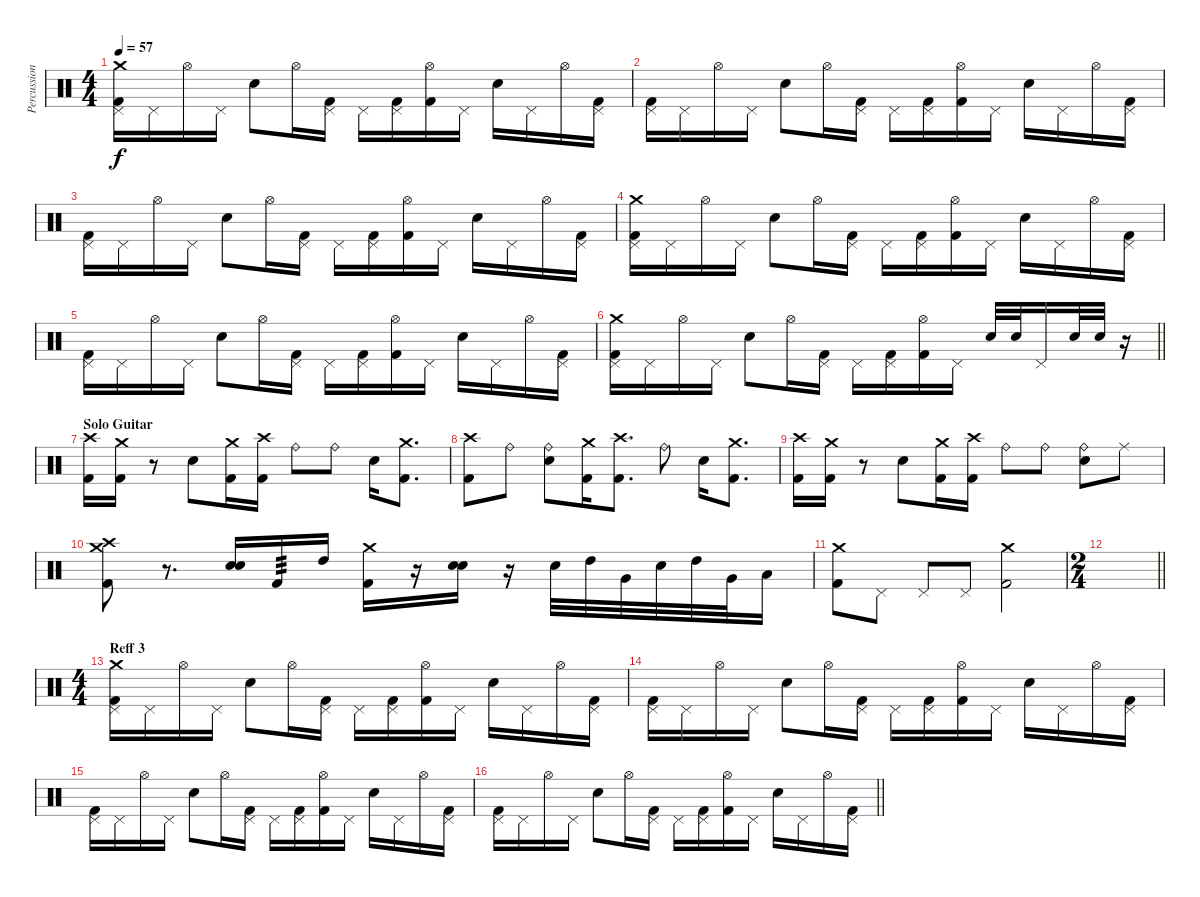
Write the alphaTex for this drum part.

\track ("Percussion" "Percussion") {instrument percussion}
\staff {score}
\articulation defaults
\ts (4 4)
\tempo 57
\clef neutral
\ks c
("Pedal Hi-Hat (hit)" "Crash medium (hit)" "Kick (hit) 2").16{dy f} "Pedal Hi-Hat (hit)".16 "Hi-Hat (open)".16 "Pedal Hi-Hat (hit)".16 "Electric Snare (hit)".8 "Hi-Hat (open)".16 ("Pedal Hi-Hat (hit)" "Kick (hit) 2").16 "Pedal Hi-Hat (hit)".16 ("Pedal Hi-Hat (hit)" "Kick (hit) 2").16 ("Hi-Hat (open)" "Kick (hit) 2").16 "Pedal Hi-Hat (hit)".16 "Electric Snare (hit)".16 "Pedal Hi-Hat (hit)".16 "Hi-Hat (open)".16 ("Pedal Hi-Hat (hit)" "Kick (hit) 2").16 |
("Pedal Hi-Hat (hit)" "Kick (hit) 2").16 "Pedal Hi-Hat (hit)".16 "Hi-Hat (open)".16 "Pedal Hi-Hat (hit)".16 "Electric Snare (hit)".8 "Hi-Hat (open)".16 ("Pedal Hi-Hat (hit)" "Kick (hit) 2").16 "Pedal Hi-Hat (hit)".16 ("Pedal Hi-Hat (hit)" "Kick (hit) 2").16 ("Hi-Hat (open)" "Kick (hit) 2").16 "Pedal Hi-Hat (hit)".16 "Electric Snare (hit)".16 "Pedal Hi-Hat (hit)".16 "Hi-Hat (open)".16 ("Pedal Hi-Hat (hit)" "Kick (hit) 2").16 |
("Pedal Hi-Hat (hit)" "Kick (hit) 2").16 "Pedal Hi-Hat (hit)".16 "Hi-Hat (open)".16 "Pedal Hi-Hat (hit)".16 "Electric Snare (hit)".8 "Hi-Hat (open)".16 ("Pedal Hi-Hat (hit)" "Kick (hit) 2").16 "Pedal Hi-Hat (hit)".16 ("Pedal Hi-Hat (hit)" "Kick (hit) 2").16 ("Hi-Hat (open)" "Kick (hit) 2").16 "Pedal Hi-Hat (hit)".16 "Electric Snare (hit)".16 "Pedal Hi-Hat (hit)".16 "Hi-Hat (open)".16 ("Pedal Hi-Hat (hit)" "Kick (hit) 2").16 |
("Pedal Hi-Hat (hit)" "Crash medium (hit)" "Kick (hit) 2").16 "Pedal Hi-Hat (hit)".16 "Hi-Hat (open)".16 "Pedal Hi-Hat (hit)".16 "Electric Snare (hit)".8 "Hi-Hat (open)".16 ("Pedal Hi-Hat (hit)" "Kick (hit) 2").16 "Pedal Hi-Hat (hit)".16 ("Pedal Hi-Hat (hit)" "Kick (hit) 2").16 ("Hi-Hat (open)" "Kick (hit) 2").16 "Pedal Hi-Hat (hit)".16 "Electric Snare (hit)".16 "Pedal Hi-Hat (hit)".16 "Hi-Hat (open)".16 ("Pedal Hi-Hat (hit)" "Kick (hit) 2").16 |
("Pedal Hi-Hat (hit)" "Kick (hit) 2").16 "Pedal Hi-Hat (hit)".16 "Hi-Hat (open)".16 "Pedal Hi-Hat (hit)".16 "Electric Snare (hit)".8 "Hi-Hat (open)".16 ("Pedal Hi-Hat (hit)" "Kick (hit) 2").16 "Pedal Hi-Hat (hit)".16 ("Pedal Hi-Hat (hit)" "Kick (hit) 2").16 ("Hi-Hat (open)" "Kick (hit) 2").16 "Pedal Hi-Hat (hit)".16 "Electric Snare (hit)".16 "Pedal Hi-Hat (hit)".16 "Hi-Hat (open)".16 ("Pedal Hi-Hat (hit)" "Kick (hit) 2").16 |
\barLineRight lightlight
("Pedal Hi-Hat (hit)" "Crash medium (hit)" "Kick (hit) 2").16 "Pedal Hi-Hat (hit)".16 "Hi-Hat (open)".16 "Pedal Hi-Hat (hit)".16 "Electric Snare (hit)".8 "Hi-Hat (open)".16 ("Pedal Hi-Hat (hit)" "Kick (hit) 2").16 "Pedal Hi-Hat (hit)".16 ("Pedal Hi-Hat (hit)" "Kick (hit) 2").16 ("Hi-Hat (open)" "Kick (hit) 2").16 "Pedal Hi-Hat (hit)".16 "Electric Snare (hit)".32 "Electric Snare (hit)".32 "Pedal Hi-Hat (hit)".16 "Electric Snare (hit)".32 "Electric Snare (hit)".32 r.16 |
\section ("" "Solo Guitar")
("Crash high (hit)" "Kick (hit) 2").16 ("Crash medium (hit)" "Kick (hit) 2").16 r.8 "Electric Snare (hit)".8 ("Crash medium (hit)" "Kick (hit) 2").16 ("Crash high (hit)" "Kick (hit) 2").16 "Ride (bell)".8 "Ride (bell)".8 "Electric Snare (hit)".16 ("Crash medium (hit)" "Kick (hit) 2").8{d} |
("Crash high (hit)" "Kick (hit) 2").8 "Ride (bell)".8 ("Ride (bell)" "Electric Snare (hit)").8 ("Crash medium (hit)" "Kick (hit) 2").16 ("Crash high (hit)" "Kick (hit) 2").8{d} "Ride (bell)".8 "Electric Snare (hit)".16 ("Crash medium (hit)" "Kick (hit) 2").8{d} |
("Crash high (hit)" "Kick (hit) 2").16 ("Crash medium (hit)" "Kick (hit) 2").16 r.8 "Electric Snare (hit)".8 ("Crash medium (hit)" "Kick (hit) 2").16 ("Crash high (hit)" "Kick (hit) 2").16 "Ride (bell)".8 "Ride (bell)".8 ("Ride (bell)" "Electric Snare (hit)").8 "Ride (middle)".8 |
("Crash medium (hit)" "Crash high (hit)" "Kick (hit) 2").8 r.8{d} ("Electric Snare (hit)" "Electric Snare (hit)").16{bd 120} "Kick (hit) 2".16{tp 3} "High Tom (hit)".16 ("Crash medium (hit)" "Kick (hit) 2").16 r.16 ("Electric Snare (hit)" "Electric Snare (hit)").16{bd 120} r.16 "Electric Snare (hit)".32 "High Tom (hit)".32 "Very Low Tom (hit)".32 "Electric Snare (hit)".32 "High Tom (hit)".32 "Very Low Tom (hit)".32 "Low Floor Tom (hit)".16 |
("Crash medium (hit)" "Kick (hit) 2").8 "Pedal Hi-Hat (hit)".8 "Pedal Hi-Hat (hit)".8 "Pedal Hi-Hat (hit)".8 ("Crash medium (hit)" "Kick (hit) 2").2 |
\ts (2 4)
\barLineRight lightlight
|
\ts (4 4)
\section ("" "Reff 3")
("Pedal Hi-Hat (hit)" "Crash medium (hit)" "Kick (hit) 2").16 "Pedal Hi-Hat (hit)".16 "Hi-Hat (open)".16 "Pedal Hi-Hat (hit)".16 "Electric Snare (hit)".8 "Hi-Hat (open)".16 ("Pedal Hi-Hat (hit)" "Kick (hit) 2").16 "Pedal Hi-Hat (hit)".16 ("Pedal Hi-Hat (hit)" "Kick (hit) 2").16 ("Hi-Hat (open)" "Kick (hit) 2").16 "Pedal Hi-Hat (hit)".16 "Electric Snare (hit)".16 "Pedal Hi-Hat (hit)".16 "Hi-Hat (open)".16 ("Pedal Hi-Hat (hit)" "Kick (hit) 2").16 |
("Pedal Hi-Hat (hit)" "Kick (hit) 2").16 "Pedal Hi-Hat (hit)".16 "Hi-Hat (open)".16 "Pedal Hi-Hat (hit)".16 "Electric Snare (hit)".8 "Hi-Hat (open)".16 ("Pedal Hi-Hat (hit)" "Kick (hit) 2").16 "Pedal Hi-Hat (hit)".16 ("Pedal Hi-Hat (hit)" "Kick (hit) 2").16 ("Hi-Hat (open)" "Kick (hit) 2").16 "Pedal Hi-Hat (hit)".16 "Electric Snare (hit)".16 "Pedal Hi-Hat (hit)".16 "Hi-Hat (open)".16 ("Pedal Hi-Hat (hit)" "Kick (hit) 2").16 |
("Pedal Hi-Hat (hit)" "Kick (hit) 2").16 "Pedal Hi-Hat (hit)".16 "Hi-Hat (open)".16 "Pedal Hi-Hat (hit)".16 "Electric Snare (hit)".8 "Hi-Hat (open)".16 ("Pedal Hi-Hat (hit)" "Kick (hit) 2").16 "Pedal Hi-Hat (hit)".16 ("Pedal Hi-Hat (hit)" "Kick (hit) 2").16 ("Hi-Hat (open)" "Kick (hit) 2").16 "Pedal Hi-Hat (hit)".16 "Electric Snare (hit)".16 "Pedal Hi-Hat (hit)".16 "Hi-Hat (open)".16 ("Pedal Hi-Hat (hit)" "Kick (hit) 2").16 |
\barLineRight lightlight
("Pedal Hi-Hat (hit)" "Kick (hit) 2").16 "Pedal Hi-Hat (hit)".16 "Hi-Hat (open)".16 "Pedal Hi-Hat (hit)".16 "Electric Snare (hit)".8 "Hi-Hat (open)".16 ("Pedal Hi-Hat (hit)" "Kick (hit) 2").16 "Pedal Hi-Hat (hit)".16 ("Pedal Hi-Hat (hit)" "Kick (hit) 2").16 ("Hi-Hat (open)" "Kick (hit) 2").16 "Pedal Hi-Hat (hit)".16 "Electric Snare (hit)".16 "Pedal Hi-Hat (hit)".16 "Hi-Hat (open)".16 ("Pedal Hi-Hat (hit)" "Kick (hit) 2").16
